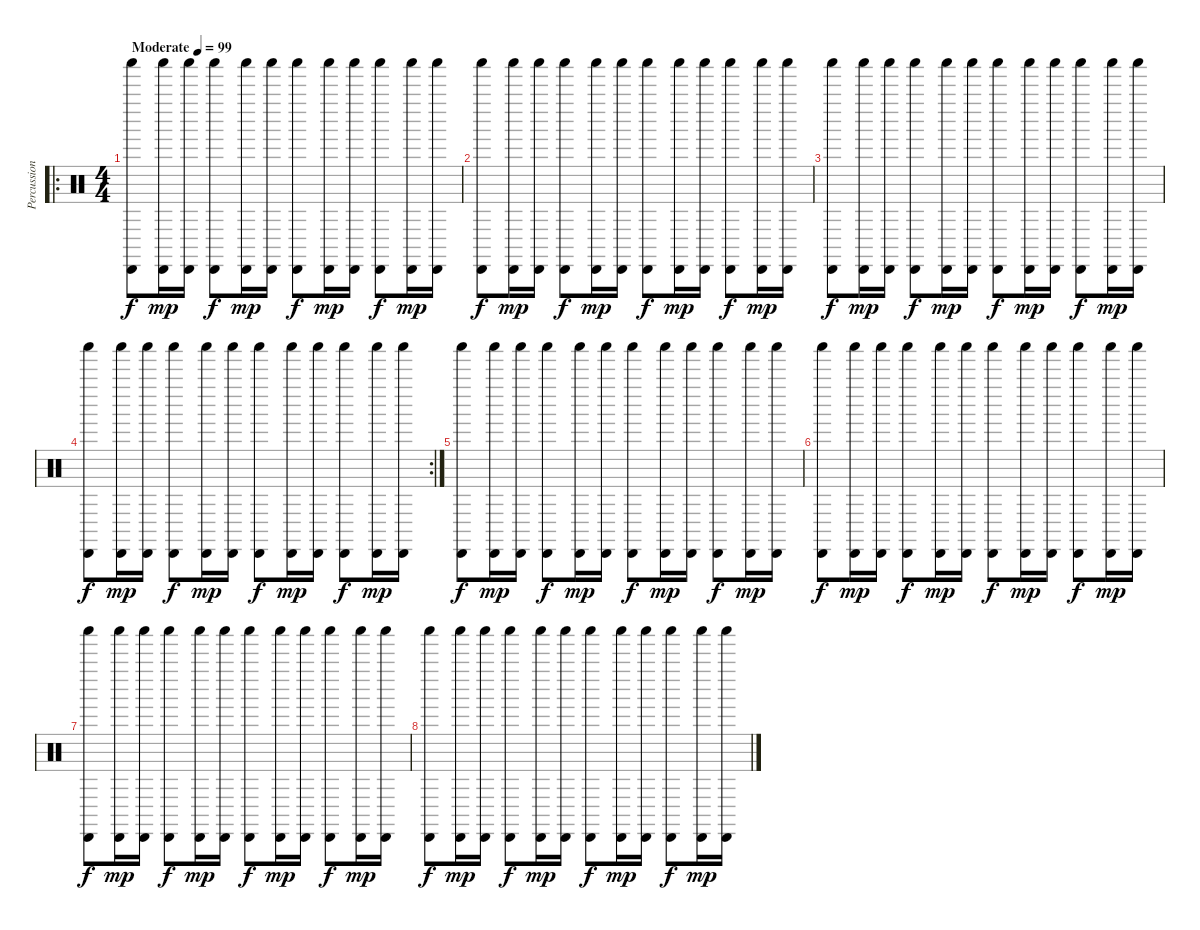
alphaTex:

\track ("Percussion" "Percussion") {instrument percussion}
\staff {score}
\articulation defaults
\ro
\ts (4 4)
\tempo (99 "Moderate")
\clef neutral
\ks c
("Cabasa (hit)" "Shaker (hit)").8{dy f} ("Cabasa (hit)" "Shaker (hit)").16{dy mp} ("Cabasa (hit)" "Shaker (hit)").16 ("Cabasa (hit)" "Shaker (hit)").8{dy f} ("Cabasa (hit)" "Shaker (hit)").16{dy mp} ("Cabasa (hit)" "Shaker (hit)").16 ("Cabasa (hit)" "Shaker (hit)").8{dy f} ("Cabasa (hit)" "Shaker (hit)").16{dy mp} ("Cabasa (hit)" "Shaker (hit)").16 ("Cabasa (hit)" "Shaker (hit)").8{dy f} ("Cabasa (hit)" "Shaker (hit)").16{dy mp} ("Cabasa (hit)" "Shaker (hit)").16 |
("Cabasa (hit)" "Shaker (hit)").8{dy f} ("Cabasa (hit)" "Shaker (hit)").16{dy mp} ("Cabasa (hit)" "Shaker (hit)").16 ("Cabasa (hit)" "Shaker (hit)").8{dy f} ("Cabasa (hit)" "Shaker (hit)").16{dy mp} ("Cabasa (hit)" "Shaker (hit)").16 ("Cabasa (hit)" "Shaker (hit)").8{dy f} ("Cabasa (hit)" "Shaker (hit)").16{dy mp} ("Cabasa (hit)" "Shaker (hit)").16 ("Cabasa (hit)" "Shaker (hit)").8{dy f} ("Cabasa (hit)" "Shaker (hit)").16{dy mp} ("Cabasa (hit)" "Shaker (hit)").16 |
("Cabasa (hit)" "Shaker (hit)").8{dy f} ("Cabasa (hit)" "Shaker (hit)").16{dy mp} ("Cabasa (hit)" "Shaker (hit)").16 ("Cabasa (hit)" "Shaker (hit)").8{dy f} ("Cabasa (hit)" "Shaker (hit)").16{dy mp} ("Cabasa (hit)" "Shaker (hit)").16 ("Cabasa (hit)" "Shaker (hit)").8{dy f} ("Cabasa (hit)" "Shaker (hit)").16{dy mp} ("Cabasa (hit)" "Shaker (hit)").16 ("Cabasa (hit)" "Shaker (hit)").8{dy f} ("Cabasa (hit)" "Shaker (hit)").16{dy mp} ("Cabasa (hit)" "Shaker (hit)").16 |
\rc 2
("Cabasa (hit)" "Shaker (hit)").8{dy f} ("Cabasa (hit)" "Shaker (hit)").16{dy mp} ("Cabasa (hit)" "Shaker (hit)").16 ("Cabasa (hit)" "Shaker (hit)").8{dy f} ("Cabasa (hit)" "Shaker (hit)").16{dy mp} ("Cabasa (hit)" "Shaker (hit)").16 ("Cabasa (hit)" "Shaker (hit)").8{dy f} ("Cabasa (hit)" "Shaker (hit)").16{dy mp} ("Cabasa (hit)" "Shaker (hit)").16 ("Cabasa (hit)" "Shaker (hit)").8{dy f} ("Cabasa (hit)" "Shaker (hit)").16{dy mp} ("Cabasa (hit)" "Shaker (hit)").16 |
("Cabasa (hit)" "Shaker (hit)").8{dy f volume 0} ("Cabasa (hit)" "Shaker (hit)").16{dy mp} ("Cabasa (hit)" "Shaker (hit)").16 ("Cabasa (hit)" "Shaker (hit)").8{dy f} ("Cabasa (hit)" "Shaker (hit)").16{dy mp} ("Cabasa (hit)" "Shaker (hit)").16 ("Cabasa (hit)" "Shaker (hit)").8{dy f} ("Cabasa (hit)" "Shaker (hit)").16{dy mp} ("Cabasa (hit)" "Shaker (hit)").16 ("Cabasa (hit)" "Shaker (hit)").8{dy f} ("Cabasa (hit)" "Shaker (hit)").16{dy mp} ("Cabasa (hit)" "Shaker (hit)").16 |
("Cabasa (hit)" "Shaker (hit)").8{dy f} ("Cabasa (hit)" "Shaker (hit)").16{dy mp} ("Cabasa (hit)" "Shaker (hit)").16 ("Cabasa (hit)" "Shaker (hit)").8{dy f} ("Cabasa (hit)" "Shaker (hit)").16{dy mp} ("Cabasa (hit)" "Shaker (hit)").16 ("Cabasa (hit)" "Shaker (hit)").8{dy f} ("Cabasa (hit)" "Shaker (hit)").16{dy mp} ("Cabasa (hit)" "Shaker (hit)").16 ("Cabasa (hit)" "Shaker (hit)").8{dy f} ("Cabasa (hit)" "Shaker (hit)").16{dy mp} ("Cabasa (hit)" "Shaker (hit)").16 |
("Cabasa (hit)" "Shaker (hit)").8{dy f} ("Cabasa (hit)" "Shaker (hit)").16{dy mp} ("Cabasa (hit)" "Shaker (hit)").16 ("Cabasa (hit)" "Shaker (hit)").8{dy f} ("Cabasa (hit)" "Shaker (hit)").16{dy mp} ("Cabasa (hit)" "Shaker (hit)").16 ("Cabasa (hit)" "Shaker (hit)").8{dy f} ("Cabasa (hit)" "Shaker (hit)").16{dy mp} ("Cabasa (hit)" "Shaker (hit)").16 ("Cabasa (hit)" "Shaker (hit)").8{dy f} ("Cabasa (hit)" "Shaker (hit)").16{dy mp} ("Cabasa (hit)" "Shaker (hit)").16 |
("Cabasa (hit)" "Shaker (hit)").8{dy f} ("Cabasa (hit)" "Shaker (hit)").16{dy mp} ("Cabasa (hit)" "Shaker (hit)").16 ("Cabasa (hit)" "Shaker (hit)").8{dy f} ("Cabasa (hit)" "Shaker (hit)").16{dy mp} ("Cabasa (hit)" "Shaker (hit)").16 ("Cabasa (hit)" "Shaker (hit)").8{dy f} ("Cabasa (hit)" "Shaker (hit)").16{dy mp} ("Cabasa (hit)" "Shaker (hit)").16 ("Cabasa (hit)" "Shaker (hit)").8{dy f} ("Cabasa (hit)" "Shaker (hit)").16{dy mp} ("Cabasa (hit)" "Shaker (hit)").16
